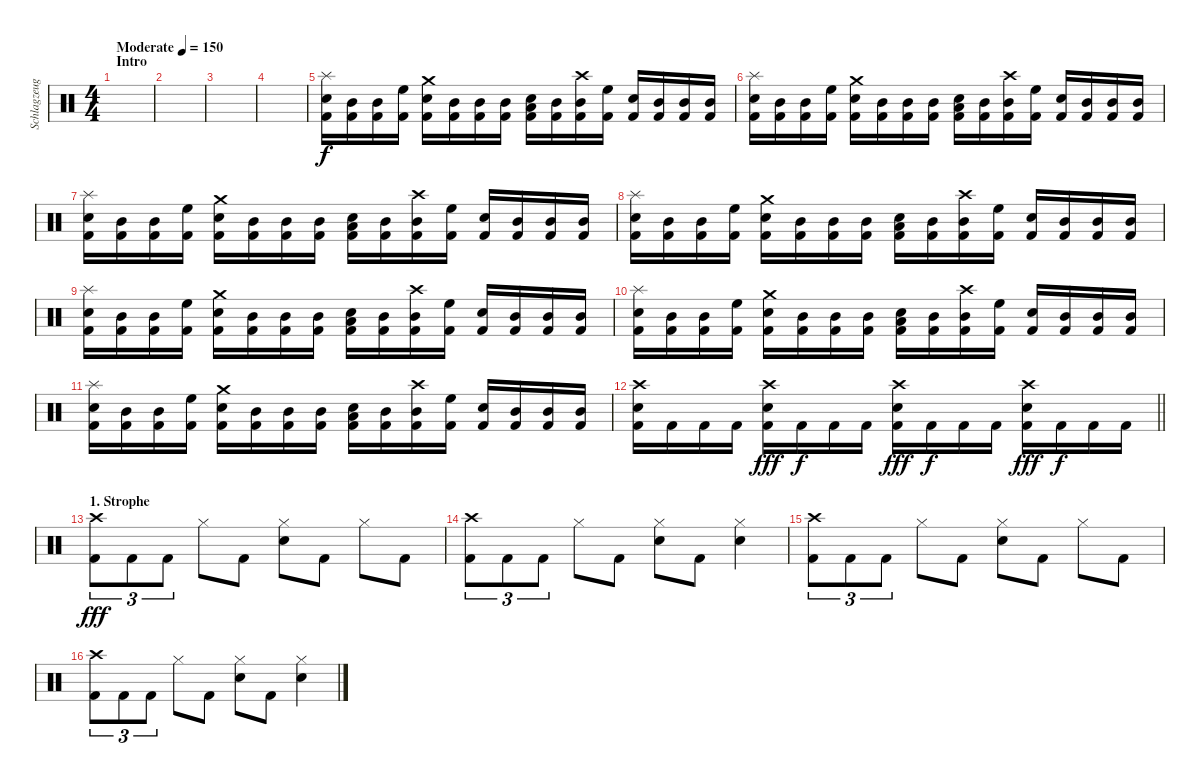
\track ("Schlagzeug" "Schlagzeug") {instrument percussion}
\staff {score}
\articulation defaults
\ts (4 4)
\section ("" "Intro")
\tempo (150 "Moderate")
\clef neutral
\ks c
|
|
|
|
("Snare (hit) 2" "Splash (hit)" "Kick (hit) 2").16 ("Mid Tom (hit)" "Kick (hit) 2").16 ("Mid Tom (hit)" "Kick (hit) 2").16 ("High Floor Tom (hit)" "Kick (hit) 2").16 ("Snare (hit) 2" "Crash medium (hit)" "Kick (hit) 2").16 ("Mid Tom (hit)" "Kick (hit) 2").16 ("Mid Tom (hit)" "Kick (hit) 2").16 ("Mid Tom (hit)" "Kick (hit) 2").16 ("Snare (hit) 2" "Low Tom (hit)" "Kick (hit) 2").16 ("Mid Tom (hit)" "Kick (hit) 2").16 ("Mid Tom (hit)" "Crash high (hit)" "Kick (hit) 2").16 ("High Floor Tom (hit)" "Kick (hit) 2").16 ("Snare (hit) 2" "Kick (hit) 2").16 ("Mid Tom (hit)" "Kick (hit) 2").16 ("Mid Tom (hit)" "Kick (hit) 2").16 ("Mid Tom (hit)" "Kick (hit) 2").16 |
("Snare (hit) 2" "Splash (hit)" "Kick (hit) 2").16 ("Mid Tom (hit)" "Kick (hit) 2").16 ("Mid Tom (hit)" "Kick (hit) 2").16 ("High Floor Tom (hit)" "Kick (hit) 2").16 ("Snare (hit) 2" "Crash medium (hit)" "Kick (hit) 2").16 ("Mid Tom (hit)" "Kick (hit) 2").16 ("Mid Tom (hit)" "Kick (hit) 2").16 ("Mid Tom (hit)" "Kick (hit) 2").16 ("Snare (hit) 2" "Low Tom (hit)" "Kick (hit) 2").16 ("Mid Tom (hit)" "Kick (hit) 2").16 ("Mid Tom (hit)" "Crash high (hit)" "Kick (hit) 2").16 ("High Floor Tom (hit)" "Kick (hit) 2").16 ("Snare (hit) 2" "Kick (hit) 2").16 ("Mid Tom (hit)" "Kick (hit) 2").16 ("Mid Tom (hit)" "Kick (hit) 2").16 ("Mid Tom (hit)" "Kick (hit) 2").16 |
("Snare (hit) 2" "Splash (hit)" "Kick (hit) 2").16 ("Mid Tom (hit)" "Kick (hit) 2").16 ("Mid Tom (hit)" "Kick (hit) 2").16 ("High Floor Tom (hit)" "Kick (hit) 2").16 ("Snare (hit) 2" "Crash medium (hit)" "Kick (hit) 2").16 ("Mid Tom (hit)" "Kick (hit) 2").16 ("Mid Tom (hit)" "Kick (hit) 2").16 ("Mid Tom (hit)" "Kick (hit) 2").16 ("Snare (hit) 2" "Low Tom (hit)" "Kick (hit) 2").16 ("Mid Tom (hit)" "Kick (hit) 2").16 ("Mid Tom (hit)" "Crash high (hit)" "Kick (hit) 2").16 ("High Floor Tom (hit)" "Kick (hit) 2").16 ("Snare (hit) 2" "Kick (hit) 2").16 ("Mid Tom (hit)" "Kick (hit) 2").16 ("Mid Tom (hit)" "Kick (hit) 2").16 ("Mid Tom (hit)" "Kick (hit) 2").16 |
("Snare (hit) 2" "Splash (hit)" "Kick (hit) 2").16 ("Mid Tom (hit)" "Kick (hit) 2").16 ("Mid Tom (hit)" "Kick (hit) 2").16 ("High Floor Tom (hit)" "Kick (hit) 2").16 ("Snare (hit) 2" "Crash medium (hit)" "Kick (hit) 2").16 ("Mid Tom (hit)" "Kick (hit) 2").16 ("Mid Tom (hit)" "Kick (hit) 2").16 ("Mid Tom (hit)" "Kick (hit) 2").16 ("Snare (hit) 2" "Low Tom (hit)" "Kick (hit) 2").16 ("Mid Tom (hit)" "Kick (hit) 2").16 ("Mid Tom (hit)" "Crash high (hit)" "Kick (hit) 2").16 ("High Floor Tom (hit)" "Kick (hit) 2").16 ("Snare (hit) 2" "Kick (hit) 2").16 ("Mid Tom (hit)" "Kick (hit) 2").16 ("Mid Tom (hit)" "Kick (hit) 2").16 ("Mid Tom (hit)" "Kick (hit) 2").16 |
("Snare (hit) 2" "Splash (hit)" "Kick (hit) 2").16 ("Mid Tom (hit)" "Kick (hit) 2").16 ("Mid Tom (hit)" "Kick (hit) 2").16 ("High Floor Tom (hit)" "Kick (hit) 2").16 ("Snare (hit) 2" "Crash medium (hit)" "Kick (hit) 2").16 ("Mid Tom (hit)" "Kick (hit) 2").16 ("Mid Tom (hit)" "Kick (hit) 2").16 ("Mid Tom (hit)" "Kick (hit) 2").16 ("Snare (hit) 2" "Low Tom (hit)" "Kick (hit) 2").16 ("Mid Tom (hit)" "Kick (hit) 2").16 ("Mid Tom (hit)" "Crash high (hit)" "Kick (hit) 2").16 ("High Floor Tom (hit)" "Kick (hit) 2").16 ("Snare (hit) 2" "Kick (hit) 2").16 ("Mid Tom (hit)" "Kick (hit) 2").16 ("Mid Tom (hit)" "Kick (hit) 2").16 ("Mid Tom (hit)" "Kick (hit) 2").16 |
("Snare (hit) 2" "Splash (hit)" "Kick (hit) 2").16 ("Mid Tom (hit)" "Kick (hit) 2").16 ("Mid Tom (hit)" "Kick (hit) 2").16 ("High Floor Tom (hit)" "Kick (hit) 2").16 ("Snare (hit) 2" "Crash medium (hit)" "Kick (hit) 2").16 ("Mid Tom (hit)" "Kick (hit) 2").16 ("Mid Tom (hit)" "Kick (hit) 2").16 ("Mid Tom (hit)" "Kick (hit) 2").16 ("Snare (hit) 2" "Low Tom (hit)" "Kick (hit) 2").16 ("Mid Tom (hit)" "Kick (hit) 2").16 ("Mid Tom (hit)" "Crash high (hit)" "Kick (hit) 2").16 ("High Floor Tom (hit)" "Kick (hit) 2").16 ("Snare (hit) 2" "Kick (hit) 2").16 ("Mid Tom (hit)" "Kick (hit) 2").16 ("Mid Tom (hit)" "Kick (hit) 2").16 ("Mid Tom (hit)" "Kick (hit) 2").16 |
("Snare (hit) 2" "Splash (hit)" "Kick (hit) 2").16 ("Mid Tom (hit)" "Kick (hit) 2").16 ("Mid Tom (hit)" "Kick (hit) 2").16 ("High Floor Tom (hit)" "Kick (hit) 2").16 ("Snare (hit) 2" "Crash medium (hit)" "Kick (hit) 2").16 ("Mid Tom (hit)" "Kick (hit) 2").16 ("Mid Tom (hit)" "Kick (hit) 2").16 ("Mid Tom (hit)" "Kick (hit) 2").16 ("Snare (hit) 2" "Low Tom (hit)" "Kick (hit) 2").16 ("Mid Tom (hit)" "Kick (hit) 2").16 ("Mid Tom (hit)" "Crash high (hit)" "Kick (hit) 2").16 ("High Floor Tom (hit)" "Kick (hit) 2").16 ("Snare (hit) 2" "Kick (hit) 2").16 ("Mid Tom (hit)" "Kick (hit) 2").16 ("Mid Tom (hit)" "Kick (hit) 2").16 ("Mid Tom (hit)" "Kick (hit) 2").16 |
\barLineRight lightlight
("Crash high (hit)" "Snare (hit) 2" "Kick (hit) 2").16 "Kick (hit) 2".16{dy f} "Kick (hit) 2".16 "Kick (hit) 2".16 ("Crash high (hit)" "Snare (hit) 2" "Kick (hit) 2").16{dy fff} "Kick (hit) 2".16{dy f} "Kick (hit) 2".16 "Kick (hit) 2".16 ("Crash high (hit)" "Snare (hit) 2" "Kick (hit) 2").16{dy fff} "Kick (hit) 2".16{dy f} "Kick (hit) 2".16 "Kick (hit) 2".16 ("Crash high (hit)" "Snare (hit) 2" "Kick (hit) 2").16{dy fff} "Kick (hit) 2".16{dy f} "Kick (hit) 2".16 "Kick (hit) 2".16 |
\section ("" "1. Strophe")
("Crash high (hit)" "Kick (hit) 2").8{tu (3 2) dy fff} "Kick (hit) 2".8{tu (3 2)} "Kick (hit) 2".8{tu (3 2)} "Hi-Hat (closed)".8 "Kick (hit) 2".8 ("Hi-Hat (closed)" "Snare (hit) 2").8 "Kick (hit) 2".8 "Hi-Hat (closed)".8 "Kick (hit) 2".8 |
("Crash high (hit)" "Kick (hit) 2").8{tu (3 2)} "Kick (hit) 2".8{tu (3 2)} "Kick (hit) 2".8{tu (3 2)} "Hi-Hat (closed)".8 "Kick (hit) 2".8 ("Hi-Hat (closed)" "Snare (hit) 2").8 "Kick (hit) 2".8 ("Hi-Hat (closed)" "Snare (hit) 2").4 |
("Crash high (hit)" "Kick (hit) 2").8{tu (3 2)} "Kick (hit) 2".8{tu (3 2)} "Kick (hit) 2".8{tu (3 2)} "Hi-Hat (closed)".8 "Kick (hit) 2".8 ("Hi-Hat (closed)" "Snare (hit) 2").8 "Kick (hit) 2".8 "Hi-Hat (closed)".8 "Kick (hit) 2".8 |
("Crash high (hit)" "Kick (hit) 2").8{tu (3 2)} "Kick (hit) 2".8{tu (3 2)} "Kick (hit) 2".8{tu (3 2)} "Hi-Hat (closed)".8 "Kick (hit) 2".8 ("Hi-Hat (closed)" "Snare (hit) 2").8 "Kick (hit) 2".8 ("Hi-Hat (closed)" "Snare (hit) 2").4
